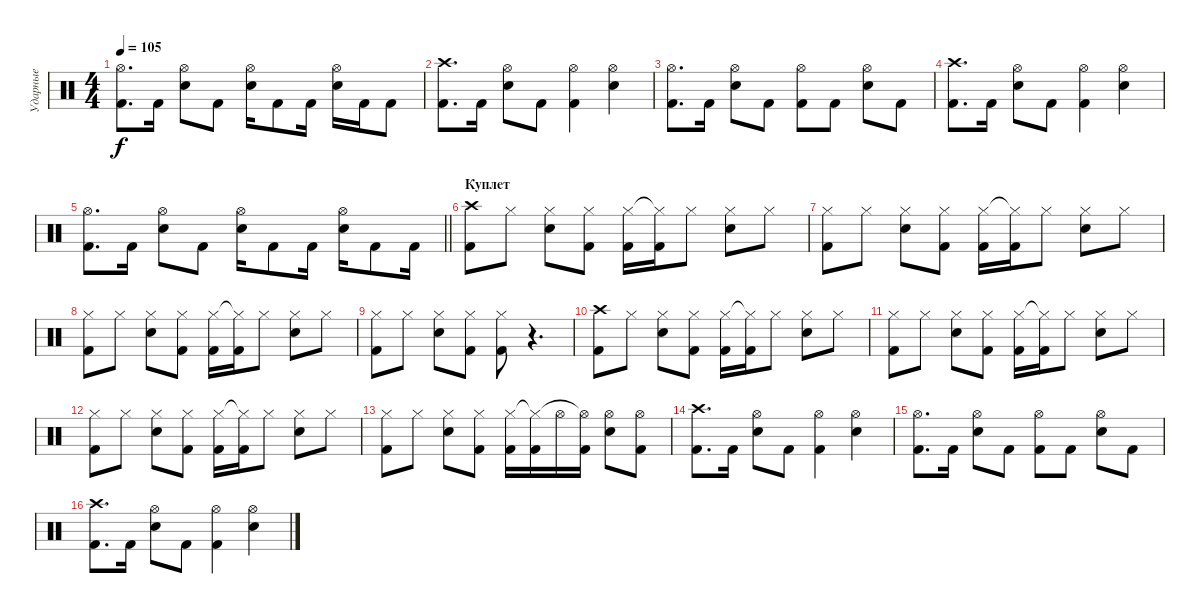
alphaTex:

\track ("Ударные" "Ударные") {instrument percussion}
\staff {score}
\articulation defaults
\ts (4 4)
\tempo 105
\clef neutral
\ks c
("Kick (hit) 2" "Hi-Hat (open)").8{d dy f} "Kick (hit) 2".16 ("Snare (hit) 2" "Hi-Hat (open)").8 "Kick (hit) 2".8 ("Snare (hit) 2" "Hi-Hat (open)").16 "Kick (hit) 2".8 "Kick (hit) 2".16 ("Snare (hit) 2" "Hi-Hat (open)").16 "Kick (hit) 2".16 "Kick (hit) 2".8 |
("Kick (hit) 2" "Crash high (hit)").8{d} "Kick (hit) 2".16 ("Snare (hit) 2" "Hi-Hat (open)").8 "Kick (hit) 2".8 ("Kick (hit) 2" "Hi-Hat (open)").4 ("Snare (hit) 2" "Hi-Hat (open)").4 |
("Kick (hit) 2" "Hi-Hat (open)").8{d} "Kick (hit) 2".16 ("Snare (hit) 2" "Hi-Hat (open)").8 "Kick (hit) 2".8 ("Kick (hit) 2" "Hi-Hat (open)").8 "Kick (hit) 2".8 ("Snare (hit) 2" "Hi-Hat (open)").8 "Kick (hit) 2".8 |
("Kick (hit) 2" "Crash high (hit)").8{d} "Kick (hit) 2".16 ("Snare (hit) 2" "Hi-Hat (open)").8 "Kick (hit) 2".8 ("Kick (hit) 2" "Hi-Hat (open)").4 ("Snare (hit) 2" "Hi-Hat (open)").4 |
\barLineRight lightlight
("Kick (hit) 2" "Hi-Hat (open)").8{d} "Kick (hit) 2".16 ("Snare (hit) 2" "Hi-Hat (open)").8 "Kick (hit) 2".8 ("Snare (hit) 2" "Hi-Hat (open)").16 "Kick (hit) 2".8 "Kick (hit) 2".16 ("Snare (hit) 2" "Hi-Hat (open)").16 "Kick (hit) 2".8 "Kick (hit) 2".16 |
\section ("" "Куплет")
("Kick (hit) 2" "Crash high (hit)").8 "Hi-Hat (closed)".8 ("Snare (hit) 2" "Hi-Hat (closed)").8 ("Kick (hit) 2" "Hi-Hat (closed)").8 ("Kick (hit) 2" "Hi-Hat (closed)").16 ("Kick (hit) 2" "Hi-Hat (closed)"{t}).16 "Hi-Hat (closed)".8 ("Snare (hit) 2" "Hi-Hat (closed)").8 "Hi-Hat (closed)".8 |
("Kick (hit) 2" "Hi-Hat (closed)").8 "Hi-Hat (closed)".8 ("Snare (hit) 2" "Hi-Hat (closed)").8 ("Kick (hit) 2" "Hi-Hat (closed)").8 ("Kick (hit) 2" "Hi-Hat (closed)").16 ("Kick (hit) 2" "Hi-Hat (closed)"{t}).16 "Hi-Hat (closed)".8 ("Snare (hit) 2" "Hi-Hat (closed)").8 "Hi-Hat (closed)".8 |
("Kick (hit) 2" "Hi-Hat (closed)").8 "Hi-Hat (closed)".8 ("Snare (hit) 2" "Hi-Hat (closed)").8 ("Kick (hit) 2" "Hi-Hat (closed)").8 ("Kick (hit) 2" "Hi-Hat (closed)").16 ("Kick (hit) 2" "Hi-Hat (closed)"{t}).16 "Hi-Hat (closed)".8 ("Snare (hit) 2" "Hi-Hat (closed)").8 "Hi-Hat (closed)".8 |
("Kick (hit) 2" "Hi-Hat (closed)").8 "Hi-Hat (closed)".8 ("Snare (hit) 2" "Hi-Hat (closed)").8 ("Kick (hit) 2" "Hi-Hat (closed)").8 ("Kick (hit) 2" "Hi-Hat (closed)").8 r.4{d} |
("Kick (hit) 2" "Crash high (hit)").8 "Hi-Hat (closed)".8 ("Snare (hit) 2" "Hi-Hat (closed)").8 ("Kick (hit) 2" "Hi-Hat (closed)").8 ("Kick (hit) 2" "Hi-Hat (closed)").16 ("Kick (hit) 2" "Hi-Hat (closed)"{t}).16 "Hi-Hat (closed)".8 ("Snare (hit) 2" "Hi-Hat (closed)").8 "Hi-Hat (closed)".8 |
("Kick (hit) 2" "Hi-Hat (closed)").8 "Hi-Hat (closed)".8 ("Snare (hit) 2" "Hi-Hat (closed)").8 ("Kick (hit) 2" "Hi-Hat (closed)").8 ("Kick (hit) 2" "Hi-Hat (closed)").16 ("Kick (hit) 2" "Hi-Hat (closed)"{t}).16 "Hi-Hat (closed)".8 ("Snare (hit) 2" "Hi-Hat (closed)").8 "Hi-Hat (closed)".8 |
("Kick (hit) 2" "Hi-Hat (closed)").8 "Hi-Hat (closed)".8 ("Snare (hit) 2" "Hi-Hat (closed)").8 ("Kick (hit) 2" "Hi-Hat (closed)").8 ("Kick (hit) 2" "Hi-Hat (closed)").16 ("Kick (hit) 2" "Hi-Hat (closed)"{t}).16 "Hi-Hat (closed)".8 ("Snare (hit) 2" "Hi-Hat (closed)").8 "Hi-Hat (closed)".8 |
("Kick (hit) 2" "Hi-Hat (closed)").8 "Hi-Hat (closed)".8 ("Snare (hit) 2" "Hi-Hat (closed)").8 ("Kick (hit) 2" "Hi-Hat (closed)").8 ("Kick (hit) 2" "Hi-Hat (closed)").16 ("Kick (hit) 2" "Hi-Hat (closed)"{t}).16 "Hi-Hat (open)".16 ("Kick (hit) 2" "Hi-Hat (open)"{t}).16 ("Snare (hit) 2" "Hi-Hat (open)").8 ("Kick (hit) 2" "Hi-Hat (open)").8 |
("Kick (hit) 2" "Crash high (hit)").8{d} "Kick (hit) 2".16 ("Snare (hit) 2" "Hi-Hat (open)").8 "Kick (hit) 2".8 ("Kick (hit) 2" "Hi-Hat (open)").4 ("Snare (hit) 2" "Hi-Hat (open)").4 |
("Kick (hit) 2" "Hi-Hat (open)").8{d} "Kick (hit) 2".16 ("Snare (hit) 2" "Hi-Hat (open)").8 "Kick (hit) 2".8 ("Kick (hit) 2" "Hi-Hat (open)").8 "Kick (hit) 2".8 ("Snare (hit) 2" "Hi-Hat (open)").8 "Kick (hit) 2".8 |
("Kick (hit) 2" "Crash high (hit)").8{d} "Kick (hit) 2".16 ("Snare (hit) 2" "Hi-Hat (open)").8 "Kick (hit) 2".8 ("Kick (hit) 2" "Hi-Hat (open)").4 ("Snare (hit) 2" "Hi-Hat (open)").4
